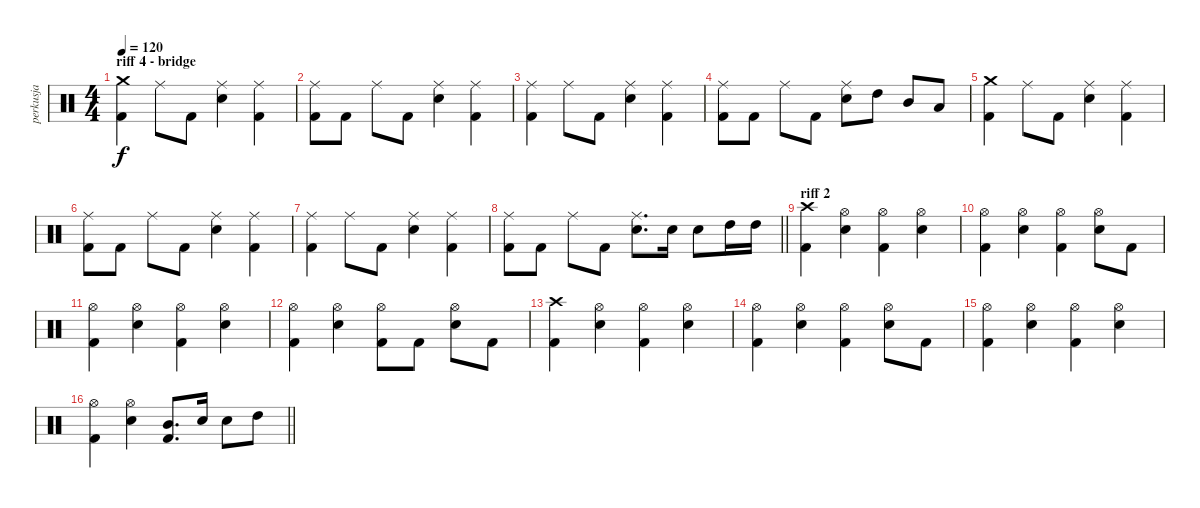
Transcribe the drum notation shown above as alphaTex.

\track ("perkusja" "perkusja") {instrument percussion}
\staff {score}
\articulation defaults
\ts (4 4)
\section ("" "riff 4 - bridge")
\tempo 120
\clef neutral
\ks c
("Crash medium (hit)" "Kick (hit) 2").4{dy f} "Ride (middle)".8 "Kick (hit) 2".8 ("Ride (middle)" "Electric Snare (hit)").4 ("Ride (middle)" "Kick (hit) 2").4 |
("Ride (middle)" "Kick (hit) 2").8 "Kick (hit) 2".8 "Ride (middle)".8 "Kick (hit) 2".8 ("Ride (middle)" "Electric Snare (hit)").4 ("Ride (middle)" "Kick (hit) 2").4 |
("Ride (middle)" "Kick (hit) 2").4 "Ride (middle)".8 "Kick (hit) 2".8 ("Ride (middle)" "Electric Snare (hit)").4 ("Ride (middle)" "Kick (hit) 2").4 |
("Ride (middle)" "Kick (hit) 2").8 "Kick (hit) 2".8 "Ride (middle)".8 "Kick (hit) 2".8 ("Ride (middle)" "Electric Snare (hit)").8 "High Tom (hit)".8 "Mid Tom (hit)".8 "Low Tom (hit)".8 |
("Crash medium (hit)" "Kick (hit) 2").4 "Ride (middle)".8 "Kick (hit) 2".8 ("Ride (middle)" "Electric Snare (hit)").4 ("Ride (middle)" "Kick (hit) 2").4 |
("Ride (middle)" "Kick (hit) 2").8 "Kick (hit) 2".8 "Ride (middle)".8 "Kick (hit) 2".8 ("Ride (middle)" "Electric Snare (hit)").4 ("Ride (middle)" "Kick (hit) 2").4 |
("Ride (middle)" "Kick (hit) 2").4 "Ride (middle)".8 "Kick (hit) 2".8 ("Ride (middle)" "Electric Snare (hit)").4 ("Ride (middle)" "Kick (hit) 2").4 |
\barLineRight lightlight
("Ride (middle)" "Kick (hit) 2").8 "Kick (hit) 2".8 "Ride (middle)".8 "Kick (hit) 2".8 ("Ride (middle)" "Electric Snare (hit)").8{d} "Electric Snare (hit)".16 "Electric Snare (hit)".8 "High Tom (hit)".16 "High Tom (hit)".16 |
\section ("" "riff 2")
("Crash high (hit)" "Kick (hit) 2").4 ("Hi-Hat (open)" "Electric Snare (hit)").4 ("Hi-Hat (open)" "Kick (hit) 2").4 ("Hi-Hat (open)" "Electric Snare (hit)").4 |
("Hi-Hat (open)" "Kick (hit) 2").4 ("Hi-Hat (open)" "Electric Snare (hit)").4 ("Hi-Hat (open)" "Kick (hit) 2").4 ("Hi-Hat (open)" "Electric Snare (hit)").8 "Kick (hit) 2".8 |
("Hi-Hat (open)" "Kick (hit) 2").4 ("Hi-Hat (open)" "Electric Snare (hit)").4 ("Hi-Hat (open)" "Kick (hit) 2").4 ("Hi-Hat (open)" "Electric Snare (hit)").4 |
("Hi-Hat (open)" "Kick (hit) 2").4 ("Hi-Hat (open)" "Electric Snare (hit)").4 ("Hi-Hat (open)" "Kick (hit) 2").8 "Kick (hit) 2".8 ("Hi-Hat (open)" "Electric Snare (hit)").8 "Kick (hit) 2".8 |
("Crash high (hit)" "Kick (hit) 2").4 ("Hi-Hat (open)" "Electric Snare (hit)").4 ("Hi-Hat (open)" "Kick (hit) 2").4 ("Hi-Hat (open)" "Electric Snare (hit)").4 |
("Hi-Hat (open)" "Kick (hit) 2").4 ("Hi-Hat (open)" "Electric Snare (hit)").4 ("Hi-Hat (open)" "Kick (hit) 2").4 ("Hi-Hat (open)" "Electric Snare (hit)").8 "Kick (hit) 2".8 |
("Hi-Hat (open)" "Kick (hit) 2").4 ("Hi-Hat (open)" "Electric Snare (hit)").4 ("Hi-Hat (open)" "Kick (hit) 2").4 ("Hi-Hat (open)" "Electric Snare (hit)").4 |
\barLineRight lightlight
("Hi-Hat (open)" "Kick (hit) 2").4 ("Hi-Hat (open)" "Electric Snare (hit)").4 ("Mid Tom (hit)" "Kick (hit) 2").8{d} "Electric Snare (hit)".16 "Electric Snare (hit)".8 "High Tom (hit)".8
